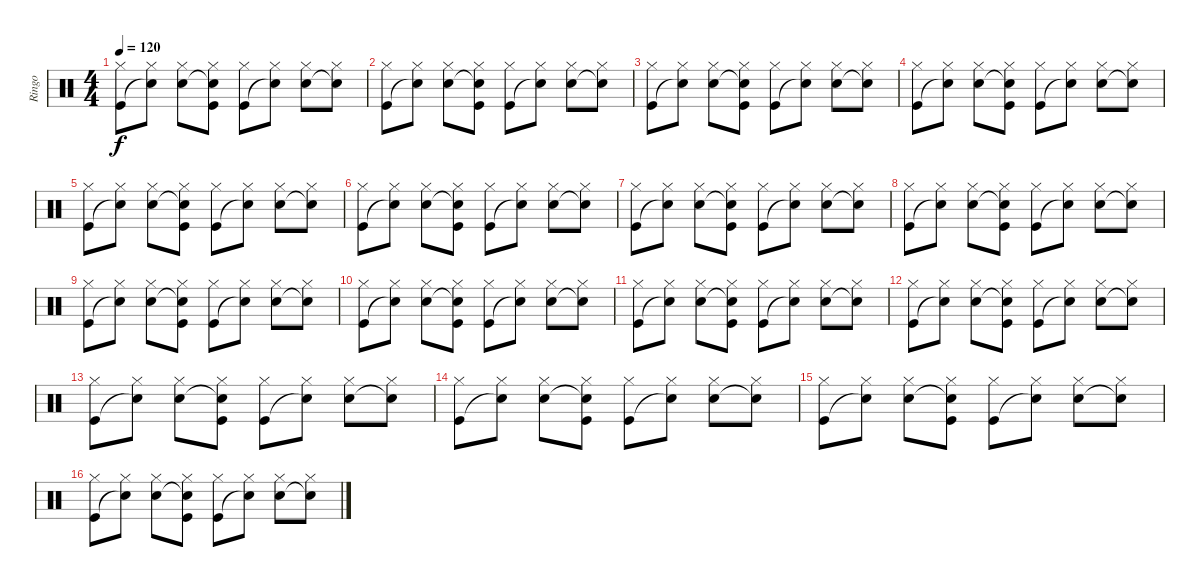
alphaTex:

\track ("Ringo" "Ringo") {instrument percussion}
\staff {score}
\articulation defaults
\ts (4 4)
\tempo 120
\clef neutral
\ks c
("Hi-Hat (closed)" "Kick (hit)").8{dy f} ("Hi-Hat (closed)" "Snare (hit)"{t}).8 ("Hi-Hat (closed)" "Snare (hit) 2").8 ("Hi-Hat (closed)" "Snare (hit)"{t} "Kick (hit)").8 ("Hi-Hat (closed)" "Kick (hit)").8 ("Hi-Hat (closed)" "Snare (hit)"{t}).8 ("Hi-Hat (closed)" "Snare (hit) 2").8 ("Hi-Hat (closed)" "Snare (hit)"{t}).8 |
("Hi-Hat (closed)" "Kick (hit)").8 ("Hi-Hat (closed)" "Snare (hit)"{t}).8 ("Hi-Hat (closed)" "Snare (hit) 2").8 ("Hi-Hat (closed)" "Snare (hit)"{t} "Kick (hit)").8 ("Hi-Hat (closed)" "Kick (hit)").8 ("Hi-Hat (closed)" "Snare (hit)"{t}).8 ("Hi-Hat (closed)" "Snare (hit) 2").8 ("Hi-Hat (closed)" "Snare (hit)"{t}).8 |
("Hi-Hat (closed)" "Kick (hit)").8 ("Hi-Hat (closed)" "Snare (hit)"{t}).8 ("Hi-Hat (closed)" "Snare (hit) 2").8 ("Hi-Hat (closed)" "Snare (hit)"{t} "Kick (hit)").8 ("Hi-Hat (closed)" "Kick (hit)").8 ("Hi-Hat (closed)" "Snare (hit)"{t}).8 ("Hi-Hat (closed)" "Snare (hit) 2").8 ("Hi-Hat (closed)" "Snare (hit)"{t}).8 |
("Hi-Hat (closed)" "Kick (hit)").8 ("Hi-Hat (closed)" "Snare (hit)"{t}).8 ("Hi-Hat (closed)" "Snare (hit) 2").8 ("Hi-Hat (closed)" "Snare (hit)"{t} "Kick (hit)").8 ("Hi-Hat (closed)" "Kick (hit)").8 ("Hi-Hat (closed)" "Snare (hit)"{t}).8 ("Hi-Hat (closed)" "Snare (hit) 2").8 ("Hi-Hat (closed)" "Snare (hit)"{t}).8 |
("Hi-Hat (closed)" "Kick (hit)").8 ("Hi-Hat (closed)" "Snare (hit)"{t}).8 ("Hi-Hat (closed)" "Snare (hit) 2").8 ("Hi-Hat (closed)" "Snare (hit)"{t} "Kick (hit)").8 ("Hi-Hat (closed)" "Kick (hit)").8 ("Hi-Hat (closed)" "Snare (hit)"{t}).8 ("Hi-Hat (closed)" "Snare (hit) 2").8 ("Hi-Hat (closed)" "Snare (hit)"{t}).8 |
("Hi-Hat (closed)" "Kick (hit)").8 ("Hi-Hat (closed)" "Snare (hit)"{t}).8 ("Hi-Hat (closed)" "Snare (hit) 2").8 ("Hi-Hat (closed)" "Snare (hit)"{t} "Kick (hit)").8 ("Hi-Hat (closed)" "Kick (hit)").8 ("Hi-Hat (closed)" "Snare (hit)"{t}).8 ("Hi-Hat (closed)" "Snare (hit) 2").8 ("Hi-Hat (closed)" "Snare (hit)"{t}).8 |
("Hi-Hat (closed)" "Kick (hit)").8 ("Hi-Hat (closed)" "Snare (hit)"{t}).8 ("Hi-Hat (closed)" "Snare (hit) 2").8 ("Hi-Hat (closed)" "Snare (hit)"{t} "Kick (hit)").8 ("Hi-Hat (closed)" "Kick (hit)").8 ("Hi-Hat (closed)" "Snare (hit)"{t}).8 ("Hi-Hat (closed)" "Snare (hit) 2").8 ("Hi-Hat (closed)" "Snare (hit)"{t}).8 |
("Hi-Hat (closed)" "Kick (hit)").8 ("Hi-Hat (closed)" "Snare (hit)"{t}).8 ("Hi-Hat (closed)" "Snare (hit) 2").8 ("Hi-Hat (closed)" "Snare (hit)"{t} "Kick (hit)").8 ("Hi-Hat (closed)" "Kick (hit)").8 ("Hi-Hat (closed)" "Snare (hit)"{t}).8 ("Hi-Hat (closed)" "Snare (hit) 2").8 ("Hi-Hat (closed)" "Snare (hit)"{t}).8 |
("Hi-Hat (closed)" "Kick (hit)").8 ("Hi-Hat (closed)" "Snare (hit)"{t}).8 ("Hi-Hat (closed)" "Snare (hit) 2").8 ("Hi-Hat (closed)" "Snare (hit)"{t} "Kick (hit)").8 ("Hi-Hat (closed)" "Kick (hit)").8 ("Hi-Hat (closed)" "Snare (hit)"{t}).8 ("Hi-Hat (closed)" "Snare (hit) 2").8 ("Hi-Hat (closed)" "Snare (hit)"{t}).8 |
("Hi-Hat (closed)" "Kick (hit)").8 ("Hi-Hat (closed)" "Snare (hit)"{t}).8 ("Hi-Hat (closed)" "Snare (hit) 2").8 ("Hi-Hat (closed)" "Snare (hit)"{t} "Kick (hit)").8 ("Hi-Hat (closed)" "Kick (hit)").8 ("Hi-Hat (closed)" "Snare (hit)"{t}).8 ("Hi-Hat (closed)" "Snare (hit) 2").8 ("Hi-Hat (closed)" "Snare (hit)"{t}).8 |
("Hi-Hat (closed)" "Kick (hit)").8 ("Hi-Hat (closed)" "Snare (hit)"{t}).8 ("Hi-Hat (closed)" "Snare (hit) 2").8 ("Hi-Hat (closed)" "Snare (hit)"{t} "Kick (hit)").8 ("Hi-Hat (closed)" "Kick (hit)").8 ("Hi-Hat (closed)" "Snare (hit)"{t}).8 ("Hi-Hat (closed)" "Snare (hit) 2").8 ("Hi-Hat (closed)" "Snare (hit)"{t}).8 |
("Hi-Hat (closed)" "Kick (hit)").8 ("Hi-Hat (closed)" "Snare (hit)"{t}).8 ("Hi-Hat (closed)" "Snare (hit) 2").8 ("Hi-Hat (closed)" "Snare (hit)"{t} "Kick (hit)").8 ("Hi-Hat (closed)" "Kick (hit)").8 ("Hi-Hat (closed)" "Snare (hit)"{t}).8 ("Hi-Hat (closed)" "Snare (hit) 2").8 ("Hi-Hat (closed)" "Snare (hit)"{t}).8 |
("Hi-Hat (closed)" "Kick (hit)").8 ("Hi-Hat (closed)" "Snare (hit)"{t}).8 ("Hi-Hat (closed)" "Snare (hit) 2").8 ("Hi-Hat (closed)" "Snare (hit)"{t} "Kick (hit)").8 ("Hi-Hat (closed)" "Kick (hit)").8 ("Hi-Hat (closed)" "Snare (hit)"{t}).8 ("Hi-Hat (closed)" "Snare (hit) 2").8 ("Hi-Hat (closed)" "Snare (hit)"{t}).8 |
("Hi-Hat (closed)" "Kick (hit)").8 ("Hi-Hat (closed)" "Snare (hit)"{t}).8 ("Hi-Hat (closed)" "Snare (hit) 2").8 ("Hi-Hat (closed)" "Snare (hit)"{t} "Kick (hit)").8 ("Hi-Hat (closed)" "Kick (hit)").8 ("Hi-Hat (closed)" "Snare (hit)"{t}).8 ("Hi-Hat (closed)" "Snare (hit) 2").8 ("Hi-Hat (closed)" "Snare (hit)"{t}).8 |
("Hi-Hat (closed)" "Kick (hit)").8 ("Hi-Hat (closed)" "Snare (hit)"{t}).8 ("Hi-Hat (closed)" "Snare (hit) 2").8 ("Hi-Hat (closed)" "Snare (hit)"{t} "Kick (hit)").8 ("Hi-Hat (closed)" "Kick (hit)").8 ("Hi-Hat (closed)" "Snare (hit)"{t}).8 ("Hi-Hat (closed)" "Snare (hit) 2").8 ("Hi-Hat (closed)" "Snare (hit)"{t}).8 |
("Hi-Hat (closed)" "Kick (hit)").8 ("Hi-Hat (closed)" "Snare (hit)"{t}).8 ("Hi-Hat (closed)" "Snare (hit) 2").8 ("Hi-Hat (closed)" "Snare (hit)"{t} "Kick (hit)").8 ("Hi-Hat (closed)" "Kick (hit)").8 ("Hi-Hat (closed)" "Snare (hit)"{t}).8 ("Hi-Hat (closed)" "Snare (hit) 2").8 ("Hi-Hat (closed)" "Snare (hit)"{t}).8
